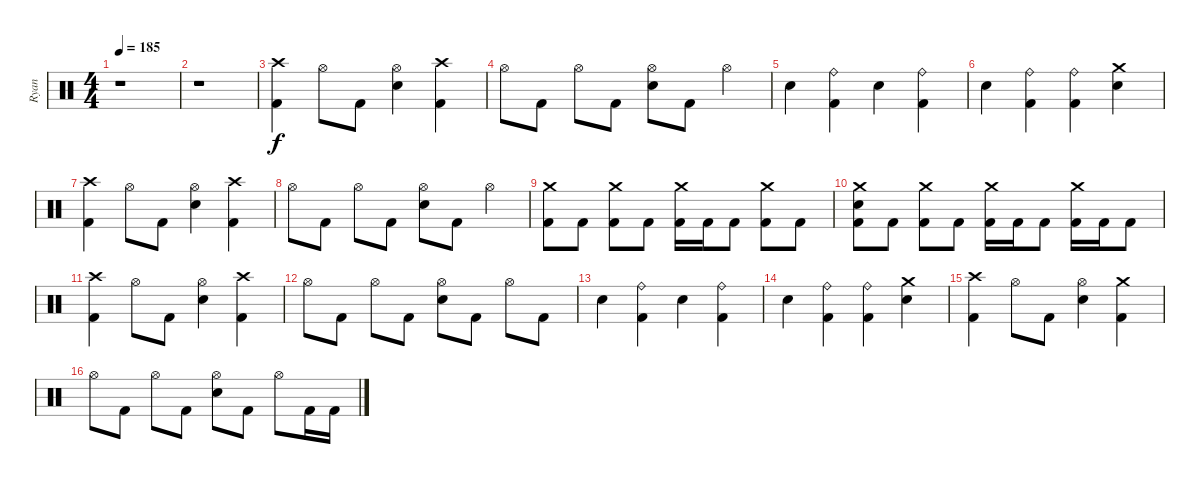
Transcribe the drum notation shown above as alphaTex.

\track ("Ryan" "Ryan") {instrument percussion}
\staff {score}
\articulation defaults
\ts (4 4)
\tempo 185
\clef neutral
\ks c
r.1{dy f} |
r.1 |
("Crash high (hit)" "Kick (hit) 2").4 "Hi-Hat (open)".8 "Kick (hit) 2".8 ("Hi-Hat (open)" "Electric Snare (hit)").4 ("Crash high (hit)" "Kick (hit) 2").4 |
"Hi-Hat (open)".8 "Kick (hit) 2".8 "Hi-Hat (open)".8 "Kick (hit) 2".8 ("Hi-Hat (open)" "Electric Snare (hit)").8 "Kick (hit) 2".8 "Hi-Hat (open)".4 |
"Electric Snare (hit)".4 ("Ride (bell)" "Kick (hit) 2").4 "Electric Snare (hit)".4 ("Ride (bell)" "Kick (hit) 2").4 |
"Electric Snare (hit)".4 ("Ride (bell)" "Kick (hit) 2").4 ("Ride (bell)" "Kick (hit) 2").4 ("Crash medium (hit)" "Electric Snare (hit)").4 |
("Crash high (hit)" "Kick (hit) 2").4 "Hi-Hat (open)".8 "Kick (hit) 2".8 ("Hi-Hat (open)" "Electric Snare (hit)").4 ("Crash high (hit)" "Kick (hit) 2").4 |
"Hi-Hat (open)".8 "Kick (hit) 2".8 "Hi-Hat (open)".8 "Kick (hit) 2".8 ("Hi-Hat (open)" "Electric Snare (hit)").8 "Kick (hit) 2".8 "Hi-Hat (open)".4 |
("Crash medium (hit)" "Kick (hit) 2").8 "Kick (hit) 2".8 ("Crash medium (hit)" "Kick (hit) 2").8 "Kick (hit) 2".8 ("Crash medium (hit)" "Kick (hit) 2").16 "Kick (hit) 2".16 "Kick (hit) 2".8 ("Crash medium (hit)" "Kick (hit) 2").8 "Kick (hit) 2".8 |
("Crash medium (hit)" "Electric Snare (hit)" "Kick (hit) 2").8 "Kick (hit) 2".8 ("Crash medium (hit)" "Kick (hit) 2").8 "Kick (hit) 2".8 ("Crash medium (hit)" "Kick (hit) 2").16 "Kick (hit) 2".16 "Kick (hit) 2".8 ("Crash medium (hit)" "Kick (hit) 2").16 "Kick (hit) 2".16 "Kick (hit) 2".8 |
("Crash high (hit)" "Kick (hit) 2").4 "Hi-Hat (open)".8 "Kick (hit) 2".8 ("Hi-Hat (open)" "Electric Snare (hit)").4 ("Crash high (hit)" "Kick (hit) 2").4 |
"Hi-Hat (open)".8 "Kick (hit) 2".8 "Hi-Hat (open)".8 "Kick (hit) 2".8 ("Hi-Hat (open)" "Electric Snare (hit)").8 "Kick (hit) 2".8 "Hi-Hat (open)".8 "Kick (hit) 2".8 |
"Electric Snare (hit)".4 ("Ride (bell)" "Kick (hit) 2").4 "Electric Snare (hit)".4 ("Ride (bell)" "Kick (hit) 2").4 |
"Electric Snare (hit)".4 ("Ride (bell)" "Kick (hit) 2").4 ("Ride (bell)" "Kick (hit) 2").4 ("Crash medium (hit)" "Electric Snare (hit)").4 |
("Crash high (hit)" "Kick (hit) 2").4 "Hi-Hat (open)".8 "Kick (hit) 2".8 ("Hi-Hat (open)" "Electric Snare (hit)").4 ("Crash medium (hit)" "Kick (hit) 2").4 |
"Hi-Hat (open)".8 "Kick (hit) 2".8 "Hi-Hat (open)".8 "Kick (hit) 2".8 ("Hi-Hat (open)" "Electric Snare (hit)").8 "Kick (hit) 2".8 "Hi-Hat (open)".8 "Kick (hit) 2".16 "Kick (hit) 2".16
